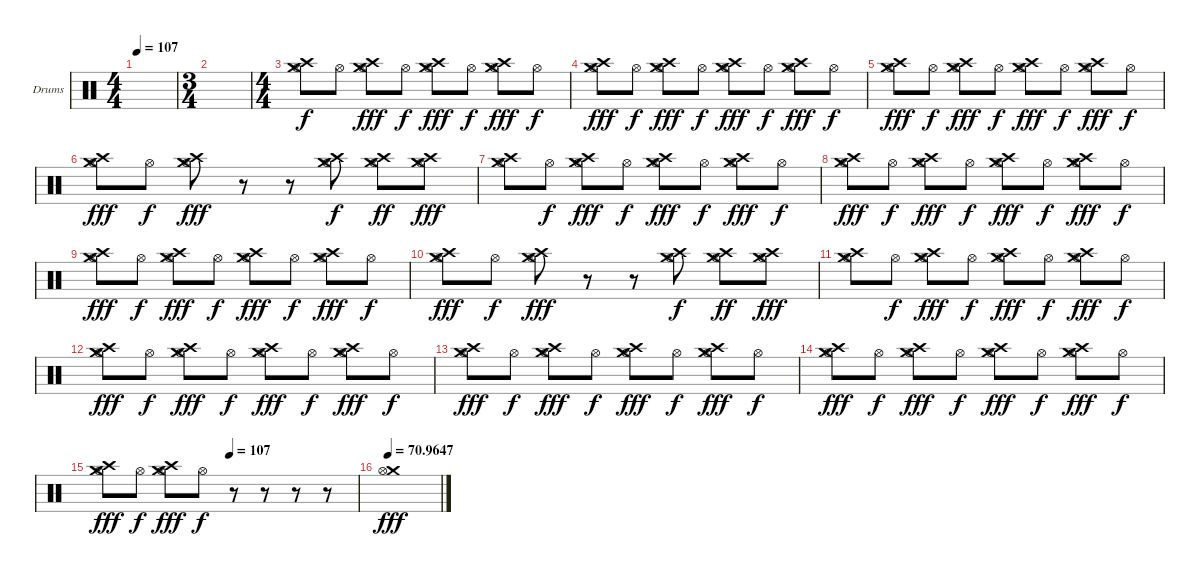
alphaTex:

\defaultSystemsLayout 4
\bracketExtendMode groupsimilarinstruments
\firstSystemTrackNameOrientation horizontal
\otherSystemsTrackNameOrientation horizontal
\track ("Helders" "Drums") {instrument percussion}
\staff {score}
\articulation defaults
\ts (4 4)
\tempo 107
\clef neutral
\ks c
|
\ts (3 4)
|
\ts (4 4)
("Hi-Hat (open)" "Crash high (hit)" "Crash medium (hit)").8 "Hi-Hat (open)".8{dy f} ("Hi-Hat (open)" "Crash high (hit)" "Crash medium (hit)").8{dy fff} "Hi-Hat (open)".8{dy f} ("Hi-Hat (open)" "Crash high (hit)" "Crash medium (hit)").8{dy fff} "Hi-Hat (open)".8{dy f} ("Hi-Hat (open)" "Crash high (hit)" "Crash medium (hit)").8{dy fff} "Hi-Hat (open)".8{dy f} |
("Hi-Hat (open)" "Crash high (hit)" "Crash medium (hit)").8{dy fff} "Hi-Hat (open)".8{dy f} ("Hi-Hat (open)" "Crash high (hit)" "Crash medium (hit)").8{dy fff} "Hi-Hat (open)".8{dy f} ("Hi-Hat (open)" "Crash high (hit)" "Crash medium (hit)").8{dy fff} "Hi-Hat (open)".8{dy f} ("Hi-Hat (open)" "Crash high (hit)" "Crash medium (hit)").8{dy fff} "Hi-Hat (open)".8{dy f} |
("Hi-Hat (open)" "Crash high (hit)" "Crash medium (hit)").8{dy fff} "Hi-Hat (open)".8{dy f} ("Hi-Hat (open)" "Crash high (hit)" "Crash medium (hit)").8{dy fff} "Hi-Hat (open)".8{dy f} ("Hi-Hat (open)" "Crash high (hit)" "Crash medium (hit)").8{dy fff} "Hi-Hat (open)".8{dy f} ("Hi-Hat (open)" "Crash high (hit)" "Crash medium (hit)").8{dy fff} "Hi-Hat (open)".8{dy f} |
("Hi-Hat (open)" "Crash high (hit)" "Crash medium (hit)").8{dy fff} "Hi-Hat (open)".8{dy f} ("Hi-Hat (open)" "Crash high (hit)" "Crash medium (hit)").8{dy fff} r.8 r.8 ("Hi-Hat (open)" "Crash medium (hit)" "Crash high (hit)").8{dy f} ("Hi-Hat (open)" "Crash high (hit)" "Crash medium (hit)").8{dy ff} ("Hi-Hat (open)" "Crash high (hit)" "Crash medium (hit)").8{dy fff} |
("Hi-Hat (open)" "Crash high (hit)" "Crash medium (hit)").8 "Hi-Hat (open)".8{dy f} ("Hi-Hat (open)" "Crash high (hit)" "Crash medium (hit)").8{dy fff} "Hi-Hat (open)".8{dy f} ("Hi-Hat (open)" "Crash high (hit)" "Crash medium (hit)").8{dy fff} "Hi-Hat (open)".8{dy f} ("Hi-Hat (open)" "Crash high (hit)" "Crash medium (hit)").8{dy fff} "Hi-Hat (open)".8{dy f} |
("Hi-Hat (open)" "Crash high (hit)" "Crash medium (hit)").8{dy fff} "Hi-Hat (open)".8{dy f} ("Hi-Hat (open)" "Crash high (hit)" "Crash medium (hit)").8{dy fff} "Hi-Hat (open)".8{dy f} ("Hi-Hat (open)" "Crash high (hit)" "Crash medium (hit)").8{dy fff} "Hi-Hat (open)".8{dy f} ("Hi-Hat (open)" "Crash high (hit)" "Crash medium (hit)").8{dy fff} "Hi-Hat (open)".8{dy f} |
("Hi-Hat (open)" "Crash high (hit)" "Crash medium (hit)").8{dy fff} "Hi-Hat (open)".8{dy f} ("Hi-Hat (open)" "Crash high (hit)" "Crash medium (hit)").8{dy fff} "Hi-Hat (open)".8{dy f} ("Hi-Hat (open)" "Crash high (hit)" "Crash medium (hit)").8{dy fff} "Hi-Hat (open)".8{dy f} ("Hi-Hat (open)" "Crash high (hit)" "Crash medium (hit)").8{dy fff} "Hi-Hat (open)".8{dy f} |
("Hi-Hat (open)" "Crash high (hit)" "Crash medium (hit)").8{dy fff} "Hi-Hat (open)".8{dy f} ("Hi-Hat (open)" "Crash high (hit)" "Crash medium (hit)").8{dy fff} r.8 r.8 ("Hi-Hat (open)" "Crash medium (hit)" "Crash high (hit)").8{dy f} ("Hi-Hat (open)" "Crash high (hit)" "Crash medium (hit)").8{dy ff} ("Hi-Hat (open)" "Crash high (hit)" "Crash medium (hit)").8{dy fff} |
("Hi-Hat (open)" "Crash high (hit)" "Crash medium (hit)").8 "Hi-Hat (open)".8{dy f} ("Hi-Hat (open)" "Crash high (hit)" "Crash medium (hit)").8{dy fff} "Hi-Hat (open)".8{dy f} ("Hi-Hat (open)" "Crash high (hit)" "Crash medium (hit)").8{dy fff} "Hi-Hat (open)".8{dy f} ("Hi-Hat (open)" "Crash high (hit)" "Crash medium (hit)").8{dy fff} "Hi-Hat (open)".8{dy f} |
("Hi-Hat (open)" "Crash high (hit)" "Crash medium (hit)").8{dy fff} "Hi-Hat (open)".8{dy f} ("Hi-Hat (open)" "Crash high (hit)" "Crash medium (hit)").8{dy fff} "Hi-Hat (open)".8{dy f} ("Hi-Hat (open)" "Crash high (hit)" "Crash medium (hit)").8{dy fff} "Hi-Hat (open)".8{dy f} ("Hi-Hat (open)" "Crash high (hit)" "Crash medium (hit)").8{dy fff} "Hi-Hat (open)".8{dy f} |
("Hi-Hat (open)" "Crash high (hit)" "Crash medium (hit)").8{dy fff} "Hi-Hat (open)".8{dy f} ("Hi-Hat (open)" "Crash high (hit)" "Crash medium (hit)").8{dy fff} "Hi-Hat (open)".8{dy f} ("Hi-Hat (open)" "Crash high (hit)" "Crash medium (hit)").8{dy fff} "Hi-Hat (open)".8{dy f} ("Hi-Hat (open)" "Crash high (hit)" "Crash medium (hit)").8{dy fff} "Hi-Hat (open)".8{dy f} |
("Hi-Hat (open)" "Crash high (hit)" "Crash medium (hit)").8{dy fff} "Hi-Hat (open)".8{dy f} ("Hi-Hat (open)" "Crash high (hit)" "Crash medium (hit)").8{dy fff} "Hi-Hat (open)".8{dy f} ("Hi-Hat (open)" "Crash high (hit)" "Crash medium (hit)").8{dy fff} "Hi-Hat (open)".8{dy f} ("Hi-Hat (open)" "Crash high (hit)" "Crash medium (hit)").8{dy fff} "Hi-Hat (open)".8{dy f} |
\tempo (107 0.5)
("Hi-Hat (open)" "Crash high (hit)" "Crash medium (hit)").8{dy fff} "Hi-Hat (open)".8{dy f} ("Hi-Hat (open)" "Crash high (hit)" "Crash medium (hit)").8{dy fff} "Hi-Hat (open)".8{dy f} r.8 r.8 r.8 r.8 |
\tempo
70.9647 ("Crash medium (hit)" "Hi-Hat (open)").1{dy fff}
